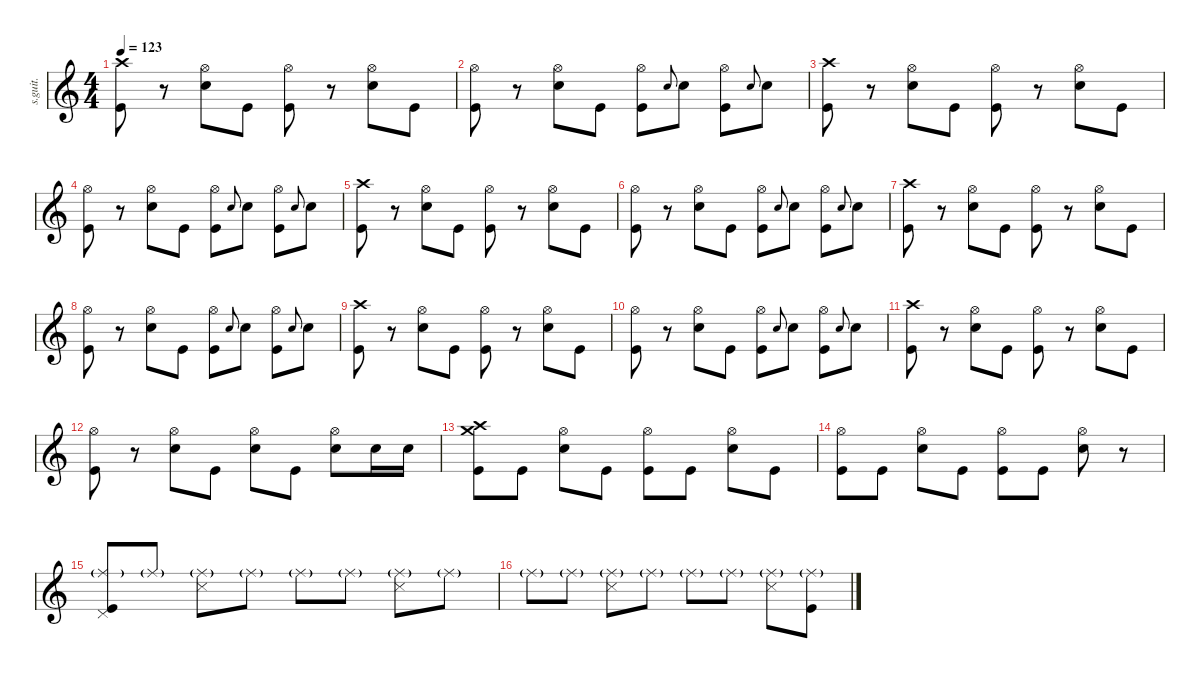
\defaultSystemsLayout 4
\hideDynamics
\bracketExtendMode nobrackets
\track ("Dave Grohl" "s.guit.") {instrument percussion}
\staff {score}
\articulation defaults
\ts (4 4)
\tempo 123
\clef g2
\ks c
("Crash high (hit)" "Kick (hit)").8{lyrics (0 "") lyrics (1 "") lyrics (2 "") lyrics (3 "") lyrics (4 "") dy fff} r.8 ("Hi-Hat (open)" "Snare (hit) 2").8{lyrics (0 "") lyrics (1 "") lyrics (2 "") lyrics (3 "") lyrics (4 "")} "Kick (hit)".8{lyrics (0 "") lyrics (1 "") lyrics (2 "") lyrics (3 "") lyrics (4 "")} ("Hi-Hat (open)" "Kick (hit)").8{lyrics (0 "") lyrics (1 "") lyrics (2 "") lyrics (3 "") lyrics (4 "")} r.8 ("Hi-Hat (open)" "Snare (hit) 2").8{lyrics (0 "") lyrics (1 "") lyrics (2 "") lyrics (3 "") lyrics (4 "")} "Kick (hit)".8{lyrics (0 "") lyrics (1 "") lyrics (2 "") lyrics (3 "") lyrics (4 "")} |
("Hi-Hat (open)" "Kick (hit)").8{lyrics (0 "") lyrics (1 "") lyrics (2 "") lyrics (3 "") lyrics (4 "")} r.8 ("Hi-Hat (open)" "Snare (hit) 2").8{lyrics (0 "") lyrics (1 "") lyrics (2 "") lyrics (3 "") lyrics (4 "")} "Kick (hit)".8{lyrics (0 "") lyrics (1 "") lyrics (2 "") lyrics (3 "") lyrics (4 "")} ("Hi-Hat (open)" "Kick (hit)").8{lyrics (0 "") lyrics (1 "") lyrics (2 "") lyrics (3 "") lyrics (4 "")} "Snare (hit) 2".8{lyrics (0 "") lyrics (1 "") lyrics (2 "") lyrics (3 "") lyrics (4 "") gr onbeat} "Snare (hit) 2".8{lyrics (0 "") lyrics (1 "") lyrics (2 "") lyrics (3 "") lyrics (4 "")} ("Hi-Hat (open)" "Kick (hit)").8{lyrics (0 "") lyrics (1 "") lyrics (2 "") lyrics (3 "") lyrics (4 "")} "Snare (hit) 2".8{lyrics (0 "") lyrics (1 "") lyrics (2 "") lyrics (3 "") lyrics (4 "") gr onbeat} "Snare (hit) 2".8{lyrics (0 "") lyrics (1 "") lyrics (2 "") lyrics (3 "") lyrics (4 "")} |
("Crash high (hit)" "Kick (hit)").8{lyrics (0 "") lyrics (1 "") lyrics (2 "") lyrics (3 "") lyrics (4 "")} r.8 ("Hi-Hat (open)" "Snare (hit) 2").8{lyrics (0 "") lyrics (1 "") lyrics (2 "") lyrics (3 "") lyrics (4 "")} "Kick (hit)".8{lyrics (0 "") lyrics (1 "") lyrics (2 "") lyrics (3 "") lyrics (4 "")} ("Hi-Hat (open)" "Kick (hit)").8{lyrics (0 "") lyrics (1 "") lyrics (2 "") lyrics (3 "") lyrics (4 "")} r.8 ("Hi-Hat (open)" "Snare (hit) 2").8{lyrics (0 "") lyrics (1 "") lyrics (2 "") lyrics (3 "") lyrics (4 "")} "Kick (hit)".8{lyrics (0 "") lyrics (1 "") lyrics (2 "") lyrics (3 "") lyrics (4 "")} |
("Hi-Hat (open)" "Kick (hit)").8{lyrics (0 "") lyrics (1 "") lyrics (2 "") lyrics (3 "") lyrics (4 "")} r.8 ("Hi-Hat (open)" "Snare (hit) 2").8{lyrics (0 "") lyrics (1 "") lyrics (2 "") lyrics (3 "") lyrics (4 "")} "Kick (hit)".8{lyrics (0 "") lyrics (1 "") lyrics (2 "") lyrics (3 "") lyrics (4 "")} ("Hi-Hat (open)" "Kick (hit)").8{lyrics (0 "") lyrics (1 "") lyrics (2 "") lyrics (3 "") lyrics (4 "")} "Snare (hit) 2".8{lyrics (0 "") lyrics (1 "") lyrics (2 "") lyrics (3 "") lyrics (4 "") gr onbeat} "Snare (hit) 2".8{lyrics (0 "") lyrics (1 "") lyrics (2 "") lyrics (3 "") lyrics (4 "")} ("Hi-Hat (open)" "Kick (hit)").8{lyrics (0 "") lyrics (1 "") lyrics (2 "") lyrics (3 "") lyrics (4 "")} "Snare (hit) 2".8{lyrics (0 "") lyrics (1 "") lyrics (2 "") lyrics (3 "") lyrics (4 "") gr onbeat} "Snare (hit) 2".8{lyrics (0 "") lyrics (1 "") lyrics (2 "") lyrics (3 "") lyrics (4 "")} |
("Crash high (hit)" "Kick (hit)").8{lyrics (0 "") lyrics (1 "") lyrics (2 "") lyrics (3 "") lyrics (4 "")} r.8 ("Hi-Hat (open)" "Snare (hit) 2").8{lyrics (0 "") lyrics (1 "") lyrics (2 "") lyrics (3 "") lyrics (4 "")} "Kick (hit)".8{lyrics (0 "") lyrics (1 "") lyrics (2 "") lyrics (3 "") lyrics (4 "")} ("Hi-Hat (open)" "Kick (hit)").8{lyrics (0 "") lyrics (1 "") lyrics (2 "") lyrics (3 "") lyrics (4 "")} r.8 ("Hi-Hat (open)" "Snare (hit) 2").8{lyrics (0 "") lyrics (1 "") lyrics (2 "") lyrics (3 "") lyrics (4 "")} "Kick (hit)".8{lyrics (0 "") lyrics (1 "") lyrics (2 "") lyrics (3 "") lyrics (4 "")} |
("Hi-Hat (open)" "Kick (hit)").8{lyrics (0 "") lyrics (1 "") lyrics (2 "") lyrics (3 "") lyrics (4 "")} r.8 ("Hi-Hat (open)" "Snare (hit) 2").8{lyrics (0 "") lyrics (1 "") lyrics (2 "") lyrics (3 "") lyrics (4 "")} "Kick (hit)".8{lyrics (0 "") lyrics (1 "") lyrics (2 "") lyrics (3 "") lyrics (4 "")} ("Hi-Hat (open)" "Kick (hit)").8{lyrics (0 "") lyrics (1 "") lyrics (2 "") lyrics (3 "") lyrics (4 "")} "Snare (hit) 2".8{lyrics (0 "") lyrics (1 "") lyrics (2 "") lyrics (3 "") lyrics (4 "") gr onbeat} "Snare (hit) 2".8{lyrics (0 "") lyrics (1 "") lyrics (2 "") lyrics (3 "") lyrics (4 "")} ("Hi-Hat (open)" "Kick (hit)").8{lyrics (0 "") lyrics (1 "") lyrics (2 "") lyrics (3 "") lyrics (4 "")} "Snare (hit) 2".8{lyrics (0 "") lyrics (1 "") lyrics (2 "") lyrics (3 "") lyrics (4 "") gr onbeat} "Snare (hit) 2".8{lyrics (0 "") lyrics (1 "") lyrics (2 "") lyrics (3 "") lyrics (4 "")} |
("Crash high (hit)" "Kick (hit)").8{lyrics (0 "") lyrics (1 "") lyrics (2 "") lyrics (3 "") lyrics (4 "")} r.8 ("Hi-Hat (open)" "Snare (hit) 2").8{lyrics (0 "") lyrics (1 "") lyrics (2 "") lyrics (3 "") lyrics (4 "")} "Kick (hit)".8{lyrics (0 "") lyrics (1 "") lyrics (2 "") lyrics (3 "") lyrics (4 "")} ("Hi-Hat (open)" "Kick (hit)").8{lyrics (0 "") lyrics (1 "") lyrics (2 "") lyrics (3 "") lyrics (4 "")} r.8 ("Hi-Hat (open)" "Snare (hit) 2").8{lyrics (0 "") lyrics (1 "") lyrics (2 "") lyrics (3 "") lyrics (4 "")} "Kick (hit)".8{lyrics (0 "") lyrics (1 "") lyrics (2 "") lyrics (3 "") lyrics (4 "")} |
("Hi-Hat (open)" "Kick (hit)").8{lyrics (0 "") lyrics (1 "") lyrics (2 "") lyrics (3 "") lyrics (4 "")} r.8 ("Hi-Hat (open)" "Snare (hit) 2").8{lyrics (0 "") lyrics (1 "") lyrics (2 "") lyrics (3 "") lyrics (4 "")} "Kick (hit)".8{lyrics (0 "") lyrics (1 "") lyrics (2 "") lyrics (3 "") lyrics (4 "")} ("Hi-Hat (open)" "Kick (hit)").8{lyrics (0 "") lyrics (1 "") lyrics (2 "") lyrics (3 "") lyrics (4 "")} "Snare (hit) 2".8{lyrics (0 "") lyrics (1 "") lyrics (2 "") lyrics (3 "") lyrics (4 "") gr onbeat} "Snare (hit) 2".8{lyrics (0 "") lyrics (1 "") lyrics (2 "") lyrics (3 "") lyrics (4 "")} ("Hi-Hat (open)" "Kick (hit)").8{lyrics (0 "") lyrics (1 "") lyrics (2 "") lyrics (3 "") lyrics (4 "")} "Snare (hit) 2".8{lyrics (0 "") lyrics (1 "") lyrics (2 "") lyrics (3 "") lyrics (4 "") gr onbeat} "Snare (hit) 2".8{lyrics (0 "") lyrics (1 "") lyrics (2 "") lyrics (3 "") lyrics (4 "")} |
("Crash high (hit)" "Kick (hit)").8{lyrics (0 "") lyrics (1 "") lyrics (2 "") lyrics (3 "") lyrics (4 "")} r.8 ("Hi-Hat (open)" "Snare (hit) 2").8{lyrics (0 "") lyrics (1 "") lyrics (2 "") lyrics (3 "") lyrics (4 "")} "Kick (hit)".8{lyrics (0 "") lyrics (1 "") lyrics (2 "") lyrics (3 "") lyrics (4 "")} ("Hi-Hat (open)" "Kick (hit)").8{lyrics (0 "") lyrics (1 "") lyrics (2 "") lyrics (3 "") lyrics (4 "")} r.8 ("Hi-Hat (open)" "Snare (hit) 2").8{lyrics (0 "") lyrics (1 "") lyrics (2 "") lyrics (3 "") lyrics (4 "")} "Kick (hit)".8{lyrics (0 "") lyrics (1 "") lyrics (2 "") lyrics (3 "") lyrics (4 "")} |
("Hi-Hat (open)" "Kick (hit)").8{lyrics (0 "") lyrics (1 "") lyrics (2 "") lyrics (3 "") lyrics (4 "")} r.8 ("Hi-Hat (open)" "Snare (hit) 2").8{lyrics (0 "") lyrics (1 "") lyrics (2 "") lyrics (3 "") lyrics (4 "")} "Kick (hit)".8{lyrics (0 "") lyrics (1 "") lyrics (2 "") lyrics (3 "") lyrics (4 "")} ("Hi-Hat (open)" "Kick (hit)").8{lyrics (0 "") lyrics (1 "") lyrics (2 "") lyrics (3 "") lyrics (4 "")} "Snare (hit) 2".8{lyrics (0 "") lyrics (1 "") lyrics (2 "") lyrics (3 "") lyrics (4 "") gr onbeat} "Snare (hit) 2".8{lyrics (0 "") lyrics (1 "") lyrics (2 "") lyrics (3 "") lyrics (4 "")} ("Hi-Hat (open)" "Kick (hit)").8{lyrics (0 "") lyrics (1 "") lyrics (2 "") lyrics (3 "") lyrics (4 "")} "Snare (hit) 2".8{lyrics (0 "") lyrics (1 "") lyrics (2 "") lyrics (3 "") lyrics (4 "") gr onbeat} "Snare (hit) 2".8{lyrics (0 "") lyrics (1 "") lyrics (2 "") lyrics (3 "") lyrics (4 "")} |
("Crash high (hit)" "Kick (hit)").8{lyrics (0 "") lyrics (1 "") lyrics (2 "") lyrics (3 "") lyrics (4 "")} r.8 ("Hi-Hat (open)" "Snare (hit) 2").8{lyrics (0 "") lyrics (1 "") lyrics (2 "") lyrics (3 "") lyrics (4 "")} "Kick (hit)".8{lyrics (0 "") lyrics (1 "") lyrics (2 "") lyrics (3 "") lyrics (4 "")} ("Hi-Hat (open)" "Kick (hit)").8{lyrics (0 "") lyrics (1 "") lyrics (2 "") lyrics (3 "") lyrics (4 "")} r.8 ("Hi-Hat (open)" "Snare (hit) 2").8{lyrics (0 "") lyrics (1 "") lyrics (2 "") lyrics (3 "") lyrics (4 "")} "Kick (hit)".8{lyrics (0 "") lyrics (1 "") lyrics (2 "") lyrics (3 "") lyrics (4 "")} |
("Hi-Hat (open)" "Kick (hit)").8{lyrics (0 "") lyrics (1 "") lyrics (2 "") lyrics (3 "") lyrics (4 "")} r.8 ("Hi-Hat (open)" "Snare (hit) 2").8{lyrics (0 "") lyrics (1 "") lyrics (2 "") lyrics (3 "") lyrics (4 "")} "Kick (hit)".8{lyrics (0 "") lyrics (1 "") lyrics (2 "") lyrics (3 "") lyrics (4 "")} ("Snare (hit) 2" "Hi-Hat (open)").8{lyrics (0 "") lyrics (1 "") lyrics (2 "") lyrics (3 "") lyrics (4 "")} "Kick (hit)".8{lyrics (0 "") lyrics (1 "") lyrics (2 "") lyrics (3 "") lyrics (4 "")} ("Snare (hit) 2" "Hi-Hat (open)").8{lyrics (0 "") lyrics (1 "") lyrics (2 "") lyrics (3 "") lyrics (4 "")} "Snare (hit) 2".16{lyrics (0 "") lyrics (1 "") lyrics (2 "") lyrics (3 "") lyrics (4 "")} "Snare (hit) 2".16{lyrics (0 "") lyrics (1 "") lyrics (2 "") lyrics (3 "") lyrics (4 "")} |
("Crash high (hit)" "Kick (hit)" "Crash medium (hit)").8{lyrics (0 "") lyrics (1 "") lyrics (2 "") lyrics (3 "") lyrics (4 "")} "Kick (hit)".8{lyrics (0 "") lyrics (1 "") lyrics (2 "") lyrics (3 "") lyrics (4 "")} ("Snare (hit) 2" "Hi-Hat (open)").8{lyrics (0 "") lyrics (1 "") lyrics (2 "") lyrics (3 "") lyrics (4 "")} "Kick (hit)".8{lyrics (0 "") lyrics (1 "") lyrics (2 "") lyrics (3 "") lyrics (4 "")} ("Kick (hit)" "Hi-Hat (open)").8{lyrics (0 "") lyrics (1 "") lyrics (2 "") lyrics (3 "") lyrics (4 "")} "Kick (hit)".8{lyrics (0 "") lyrics (1 "") lyrics (2 "") lyrics (3 "") lyrics (4 "")} ("Snare (hit) 2" "Hi-Hat (open)").8{lyrics (0 "") lyrics (1 "") lyrics (2 "") lyrics (3 "") lyrics (4 "")} "Kick (hit)".8{lyrics (0 "") lyrics (1 "") lyrics (2 "") lyrics (3 "") lyrics (4 "")} |
("Kick (hit)" "Hi-Hat (open)").8{lyrics (0 "") lyrics (1 "") lyrics (2 "") lyrics (3 "") lyrics (4 "")} "Kick (hit)".8{lyrics (0 "") lyrics (1 "") lyrics (2 "") lyrics (3 "") lyrics (4 "")} ("Snare (hit) 2" "Hi-Hat (open)").8{lyrics (0 "") lyrics (1 "") lyrics (2 "") lyrics (3 "") lyrics (4 "")} "Kick (hit)".8{lyrics (0 "") lyrics (1 "") lyrics (2 "") lyrics (3 "") lyrics (4 "")} ("Kick (hit)" "Hi-Hat (open)").8{lyrics (0 "") lyrics (1 "") lyrics (2 "") lyrics (3 "") lyrics (4 "")} "Kick (hit)".8{lyrics (0 "") lyrics (1 "") lyrics (2 "") lyrics (3 "") lyrics (4 "")} ("Snare (hit) 2" "Hi-Hat (open)").8{lyrics (0 "") lyrics (1 "") lyrics (2 "") lyrics (3 "") lyrics (4 "")} r.8 |
("Ride (middle)"{g} "Kick (hit)" "Pedal Hi-Hat (hit)").8{lyrics (0 "") lyrics (1 "") lyrics (2 "") lyrics (3 "") lyrics (4 "") dy f} "Ride (middle)"{g}.8{lyrics (0 "") lyrics (1 "") lyrics (2 "") lyrics (3 "") lyrics (4 "") dy fff} ("Ride (middle)"{g} "Snare (side stick) 3").8{lyrics (0 "") lyrics (1 "") lyrics (2 "") lyrics (3 "") lyrics (4 "") dy f} "Ride (middle)"{g}.8{lyrics (0 "") lyrics (1 "") lyrics (2 "") lyrics (3 "") lyrics (4 "") dy fff} "Ride (middle)"{g}.8{lyrics (0 "") lyrics (1 "") lyrics (2 "") lyrics (3 "") lyrics (4 "")} "Ride (middle)"{g}.8{lyrics (0 "") lyrics (1 "") lyrics (2 "") lyrics (3 "") lyrics (4 "")} ("Ride (middle)"{g} "Snare (side stick) 3").8{lyrics (0 "") lyrics (1 "") lyrics (2 "") lyrics (3 "") lyrics (4 "") dy f} "Ride (middle)"{g}.8{lyrics (0 "") lyrics (1 "") lyrics (2 "") lyrics (3 "") lyrics (4 "") dy fff} |
"Ride (middle)"{g}.8{lyrics (0 "") lyrics (1 "") lyrics (2 "") lyrics (3 "") lyrics (4 "")} "Ride (middle)"{g}.8{lyrics (0 "") lyrics (1 "") lyrics (2 "") lyrics (3 "") lyrics (4 "")} ("Ride (middle)"{g} "Snare (side stick) 3").8{lyrics (0 "") lyrics (1 "") lyrics (2 "") lyrics (3 "") lyrics (4 "") dy f} "Ride (middle)"{g}.8{lyrics (0 "") lyrics (1 "") lyrics (2 "") lyrics (3 "") lyrics (4 "") dy fff} "Ride (middle)"{g}.8{lyrics (0 "") lyrics (1 "") lyrics (2 "") lyrics (3 "") lyrics (4 "")} "Ride (middle)"{g}.8{lyrics (0 "") lyrics (1 "") lyrics (2 "") lyrics (3 "") lyrics (4 "")} ("Ride (middle)"{g} "Snare (side stick) 3").8{lyrics (0 "") lyrics (1 "") lyrics (2 "") lyrics (3 "") lyrics (4 "") dy f} ("Ride (middle)"{g} "Kick (hit)").8{lyrics (0 "") lyrics (1 "") lyrics (2 "") lyrics (3 "") lyrics (4 "")}
